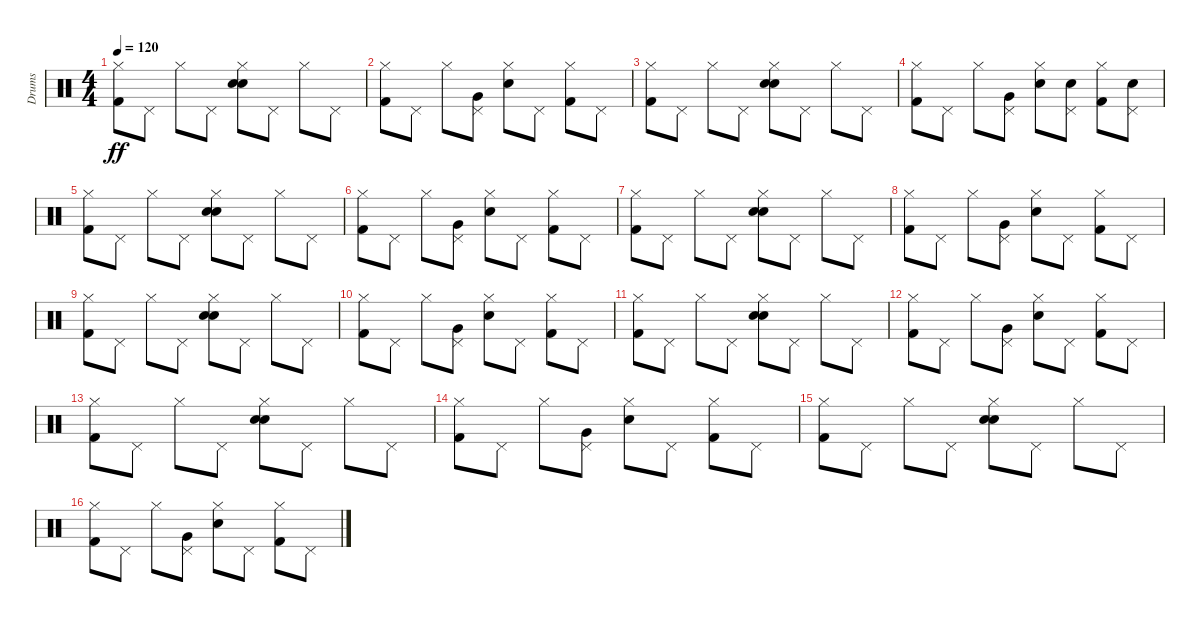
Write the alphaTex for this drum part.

\track ("Drums" "Drums") {instrument percussion}
\staff {score}
\articulation defaults
\ts (4 4)
\tempo 120
\clef neutral
\ks c
("Kick (hit) 2" "Hi-Hat (closed)").8{dy ff} "Pedal Hi-Hat (hit)".8 "Hi-Hat (closed)".8 "Pedal Hi-Hat (hit)".8 ("Electric Snare (hit)" "Electric Snare (hit)" "Hi-Hat (closed)").8 "Pedal Hi-Hat (hit)".8 "Hi-Hat (closed)".8 "Pedal Hi-Hat (hit)".8 |
("Kick (hit) 2" "Hi-Hat (closed)").8 "Pedal Hi-Hat (hit)".8 "Hi-Hat (closed)".8 ("Very Low Tom (hit)" "Pedal Hi-Hat (hit)").8 ("Electric Snare (hit)" "Hi-Hat (closed)").8 "Pedal Hi-Hat (hit)".8 ("Kick (hit) 2" "Hi-Hat (closed)").8 "Pedal Hi-Hat (hit)".8 |
("Kick (hit) 2" "Hi-Hat (closed)").8 "Pedal Hi-Hat (hit)".8 "Hi-Hat (closed)".8 "Pedal Hi-Hat (hit)".8 ("Electric Snare (hit)" "Electric Snare (hit)" "Hi-Hat (closed)").8 "Pedal Hi-Hat (hit)".8 "Hi-Hat (closed)".8 "Pedal Hi-Hat (hit)".8 |
("Kick (hit) 2" "Hi-Hat (closed)").8 "Pedal Hi-Hat (hit)".8 "Hi-Hat (closed)".8 ("Very Low Tom (hit)" "Pedal Hi-Hat (hit)").8 ("Electric Snare (hit)" "Hi-Hat (closed)").8 ("Electric Snare (hit)" "Pedal Hi-Hat (hit)").8 ("Kick (hit) 2" "Hi-Hat (closed)").8 ("Snare (hit) 2" "Pedal Hi-Hat (hit)").8 |
("Kick (hit) 2" "Hi-Hat (closed)").8 "Pedal Hi-Hat (hit)".8 "Hi-Hat (closed)".8 "Pedal Hi-Hat (hit)".8 ("Electric Snare (hit)" "Electric Snare (hit)" "Hi-Hat (closed)").8 "Pedal Hi-Hat (hit)".8 "Hi-Hat (closed)".8 "Pedal Hi-Hat (hit)".8 |
("Kick (hit) 2" "Hi-Hat (closed)").8 "Pedal Hi-Hat (hit)".8 "Hi-Hat (closed)".8 ("Very Low Tom (hit)" "Pedal Hi-Hat (hit)").8 ("Electric Snare (hit)" "Hi-Hat (closed)").8 "Pedal Hi-Hat (hit)".8 ("Kick (hit) 2" "Hi-Hat (closed)").8 "Pedal Hi-Hat (hit)".8 |
("Kick (hit) 2" "Hi-Hat (closed)").8 "Pedal Hi-Hat (hit)".8 "Hi-Hat (closed)".8 "Pedal Hi-Hat (hit)".8 ("Electric Snare (hit)" "Electric Snare (hit)" "Hi-Hat (closed)").8 "Pedal Hi-Hat (hit)".8 "Hi-Hat (closed)".8 "Pedal Hi-Hat (hit)".8 |
("Kick (hit) 2" "Hi-Hat (closed)").8 "Pedal Hi-Hat (hit)".8 "Hi-Hat (closed)".8 ("Very Low Tom (hit)" "Pedal Hi-Hat (hit)").8 ("Electric Snare (hit)" "Hi-Hat (closed)").8 "Pedal Hi-Hat (hit)".8 ("Kick (hit) 2" "Hi-Hat (closed)").8 "Pedal Hi-Hat (hit)".8 |
("Kick (hit) 2" "Hi-Hat (closed)").8 "Pedal Hi-Hat (hit)".8 "Hi-Hat (closed)".8 "Pedal Hi-Hat (hit)".8 ("Electric Snare (hit)" "Electric Snare (hit)" "Hi-Hat (closed)").8 "Pedal Hi-Hat (hit)".8 "Hi-Hat (closed)".8 "Pedal Hi-Hat (hit)".8 |
("Kick (hit) 2" "Hi-Hat (closed)").8 "Pedal Hi-Hat (hit)".8 "Hi-Hat (closed)".8 ("Very Low Tom (hit)" "Pedal Hi-Hat (hit)").8 ("Electric Snare (hit)" "Hi-Hat (closed)").8 "Pedal Hi-Hat (hit)".8 ("Kick (hit) 2" "Hi-Hat (closed)").8 "Pedal Hi-Hat (hit)".8 |
("Kick (hit) 2" "Hi-Hat (closed)").8 "Pedal Hi-Hat (hit)".8 "Hi-Hat (closed)".8 "Pedal Hi-Hat (hit)".8 ("Electric Snare (hit)" "Electric Snare (hit)" "Hi-Hat (closed)").8 "Pedal Hi-Hat (hit)".8 "Hi-Hat (closed)".8 "Pedal Hi-Hat (hit)".8 |
("Kick (hit) 2" "Hi-Hat (closed)").8 "Pedal Hi-Hat (hit)".8 "Hi-Hat (closed)".8 ("Very Low Tom (hit)" "Pedal Hi-Hat (hit)").8 ("Electric Snare (hit)" "Hi-Hat (closed)").8 "Pedal Hi-Hat (hit)".8 ("Kick (hit) 2" "Hi-Hat (closed)").8 "Pedal Hi-Hat (hit)".8 |
("Kick (hit) 2" "Hi-Hat (closed)").8 "Pedal Hi-Hat (hit)".8 "Hi-Hat (closed)".8 "Pedal Hi-Hat (hit)".8 ("Electric Snare (hit)" "Electric Snare (hit)" "Hi-Hat (closed)").8 "Pedal Hi-Hat (hit)".8 "Hi-Hat (closed)".8 "Pedal Hi-Hat (hit)".8 |
("Kick (hit) 2" "Hi-Hat (closed)").8 "Pedal Hi-Hat (hit)".8 "Hi-Hat (closed)".8 ("Very Low Tom (hit)" "Pedal Hi-Hat (hit)").8 ("Electric Snare (hit)" "Hi-Hat (closed)").8 "Pedal Hi-Hat (hit)".8 ("Kick (hit) 2" "Hi-Hat (closed)").8 "Pedal Hi-Hat (hit)".8 |
("Kick (hit) 2" "Hi-Hat (closed)").8 "Pedal Hi-Hat (hit)".8 "Hi-Hat (closed)".8 "Pedal Hi-Hat (hit)".8 ("Electric Snare (hit)" "Electric Snare (hit)" "Hi-Hat (closed)").8 "Pedal Hi-Hat (hit)".8 "Hi-Hat (closed)".8 "Pedal Hi-Hat (hit)".8 |
("Kick (hit) 2" "Hi-Hat (closed)").8 "Pedal Hi-Hat (hit)".8 "Hi-Hat (closed)".8 ("Very Low Tom (hit)" "Pedal Hi-Hat (hit)").8 ("Electric Snare (hit)" "Hi-Hat (closed)").8 "Pedal Hi-Hat (hit)".8 ("Kick (hit) 2" "Hi-Hat (closed)").8 "Pedal Hi-Hat (hit)".8
